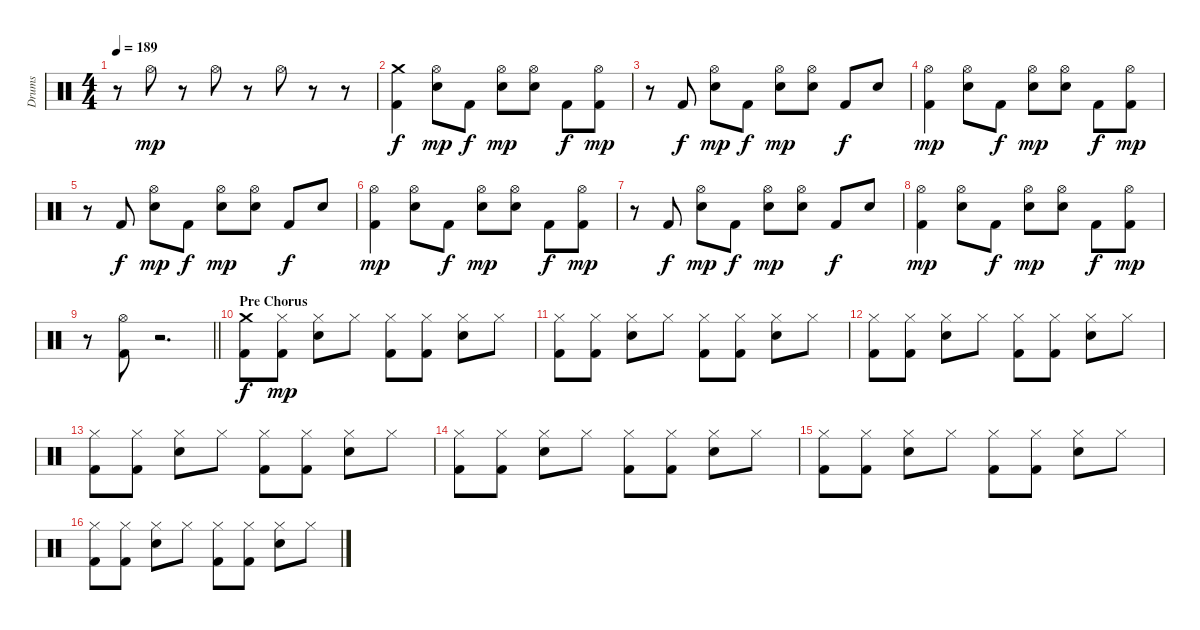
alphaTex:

\track ("Drums" "Drums") {instrument percussion}
\staff {score}
\articulation defaults
\ts (4 4)
\tempo 189
\clef neutral
\ks c
r.8{dy mp} "Hi-Hat (open)".8 r.8 "Hi-Hat (open)".8 r.8 "Hi-Hat (open)".8 r.8 r.8 |
("Crash medium (hit)" "Kick (hit) 2").4{dy f} ("Hi-Hat (open)" "Snare (hit) 2").8{dy mp} "Kick (hit) 2".8{dy f} ("Hi-Hat (open)" "Snare (hit) 2").8{dy mp} ("Hi-Hat (open)" "Snare (hit) 2").8 "Kick (hit) 2".8{dy f} ("Hi-Hat (open)" "Kick (hit) 2").8{dy mp} |
r.8 "Kick (hit) 2".8{dy f} ("Hi-Hat (open)" "Snare (hit) 2").8{dy mp} "Kick (hit) 2".8{dy f} ("Hi-Hat (open)" "Snare (hit) 2").8{dy mp} ("Hi-Hat (open)" "Snare (hit) 2").8 "Kick (hit) 2".8{dy f} "Snare (hit) 2".8 |
("Hi-Hat (open)" "Kick (hit) 2").4{dy mp} ("Hi-Hat (open)" "Snare (hit) 2").8 "Kick (hit) 2".8{dy f} ("Hi-Hat (open)" "Snare (hit) 2").8{dy mp} ("Hi-Hat (open)" "Snare (hit) 2").8 "Kick (hit) 2".8{dy f} ("Hi-Hat (open)" "Kick (hit) 2").8{dy mp} |
r.8 "Kick (hit) 2".8{dy f} ("Hi-Hat (open)" "Snare (hit) 2").8{dy mp} "Kick (hit) 2".8{dy f} ("Hi-Hat (open)" "Snare (hit) 2").8{dy mp} ("Hi-Hat (open)" "Snare (hit) 2").8 "Kick (hit) 2".8{dy f} "Snare (hit) 2".8 |
("Hi-Hat (open)" "Kick (hit) 2").4{dy mp} ("Hi-Hat (open)" "Snare (hit) 2").8 "Kick (hit) 2".8{dy f} ("Hi-Hat (open)" "Snare (hit) 2").8{dy mp} ("Hi-Hat (open)" "Snare (hit) 2").8 "Kick (hit) 2".8{dy f} ("Hi-Hat (open)" "Kick (hit) 2").8{dy mp} |
r.8 "Kick (hit) 2".8{dy f} ("Hi-Hat (open)" "Snare (hit) 2").8{dy mp} "Kick (hit) 2".8{dy f} ("Hi-Hat (open)" "Snare (hit) 2").8{dy mp} ("Hi-Hat (open)" "Snare (hit) 2").8 "Kick (hit) 2".8{dy f} "Snare (hit) 2".8 |
("Hi-Hat (open)" "Kick (hit) 2").4{dy mp} ("Hi-Hat (open)" "Snare (hit) 2").8 "Kick (hit) 2".8{dy f} ("Hi-Hat (open)" "Snare (hit) 2").8{dy mp} ("Hi-Hat (open)" "Snare (hit) 2").8 "Kick (hit) 2".8{dy f} ("Hi-Hat (open)" "Kick (hit) 2").8{dy mp} |
\barLineRight lightlight
r.8 ("Hi-Hat (open)" "Kick (hit) 2").8 r.2{d} |
\section ("" "Pre Chorus")
("Crash medium (hit)" "Kick (hit) 2").8{dy f} ("Hi-Hat (closed)" "Kick (hit) 2").8{dy mp} ("Hi-Hat (closed)" "Snare (hit) 2").8 "Hi-Hat (closed)".8 ("Hi-Hat (closed)" "Kick (hit) 2").8 ("Hi-Hat (closed)" "Kick (hit) 2").8 ("Hi-Hat (closed)" "Snare (hit) 2").8 "Hi-Hat (closed)".8 |
("Hi-Hat (closed)" "Kick (hit) 2").8 ("Hi-Hat (closed)" "Kick (hit) 2").8 ("Hi-Hat (closed)" "Snare (hit) 2").8 "Hi-Hat (closed)".8 ("Hi-Hat (closed)" "Kick (hit) 2").8 ("Hi-Hat (closed)" "Kick (hit) 2").8 ("Hi-Hat (closed)" "Snare (hit) 2").8 "Hi-Hat (closed)".8 |
("Hi-Hat (closed)" "Kick (hit) 2").8 ("Hi-Hat (closed)" "Kick (hit) 2").8 ("Hi-Hat (closed)" "Snare (hit) 2").8 "Hi-Hat (closed)".8 ("Hi-Hat (closed)" "Kick (hit) 2").8 ("Hi-Hat (closed)" "Kick (hit) 2").8 ("Hi-Hat (closed)" "Snare (hit) 2").8 "Hi-Hat (closed)".8 |
("Hi-Hat (closed)" "Kick (hit) 2").8 ("Hi-Hat (closed)" "Kick (hit) 2").8 ("Hi-Hat (closed)" "Snare (hit) 2").8 "Hi-Hat (closed)".8 ("Hi-Hat (closed)" "Kick (hit) 2").8 ("Hi-Hat (closed)" "Kick (hit) 2").8 ("Hi-Hat (closed)" "Snare (hit) 2").8 "Hi-Hat (closed)".8 |
("Hi-Hat (closed)" "Kick (hit) 2").8 ("Hi-Hat (closed)" "Kick (hit) 2").8 ("Hi-Hat (closed)" "Snare (hit) 2").8 "Hi-Hat (closed)".8 ("Hi-Hat (closed)" "Kick (hit) 2").8 ("Hi-Hat (closed)" "Kick (hit) 2").8 ("Hi-Hat (closed)" "Snare (hit) 2").8 "Hi-Hat (closed)".8 |
("Hi-Hat (closed)" "Kick (hit) 2").8 ("Hi-Hat (closed)" "Kick (hit) 2").8 ("Hi-Hat (closed)" "Snare (hit) 2").8 "Hi-Hat (closed)".8 ("Hi-Hat (closed)" "Kick (hit) 2").8 ("Hi-Hat (closed)" "Kick (hit) 2").8 ("Hi-Hat (closed)" "Snare (hit) 2").8 "Hi-Hat (closed)".8 |
("Hi-Hat (closed)" "Kick (hit) 2").8 ("Hi-Hat (closed)" "Kick (hit) 2").8 ("Hi-Hat (closed)" "Snare (hit) 2").8 "Hi-Hat (closed)".8 ("Hi-Hat (closed)" "Kick (hit) 2").8 ("Hi-Hat (closed)" "Kick (hit) 2").8 ("Hi-Hat (closed)" "Snare (hit) 2").8 "Hi-Hat (closed)".8
